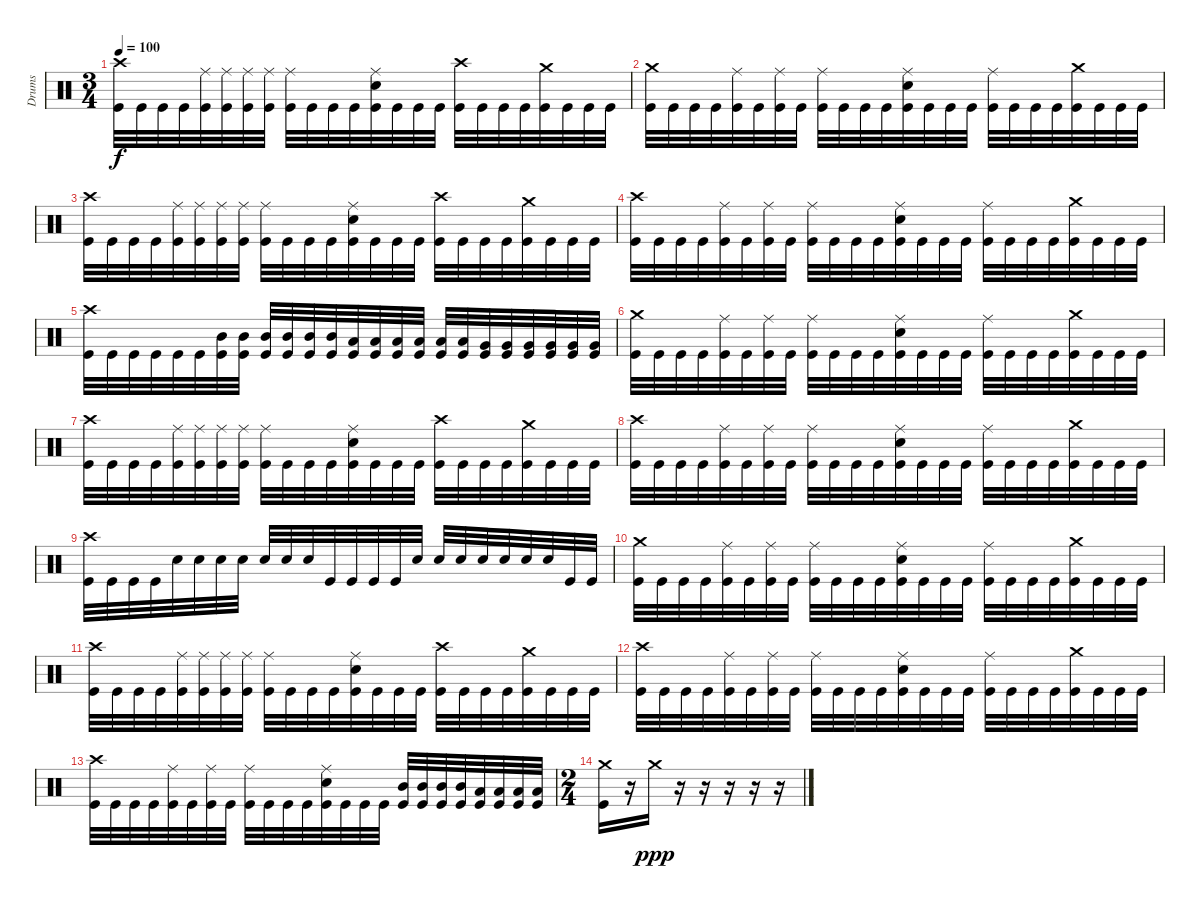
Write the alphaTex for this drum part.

\track ("Drums" "Drums") {instrument percussion}
\staff {score}
\articulation defaults
\ts (3 4)
\tempo 100
\clef neutral
\ks c
("Crash high (hit)" "Kick (hit)").32{dy f} "Kick (hit)".32 "Kick (hit)".32 "Kick (hit)".32 ("Ride (middle)" "Kick (hit)").32 ("Ride (middle)" "Kick (hit)").32 ("Ride (middle)" "Kick (hit)").32 ("Ride (middle)" "Kick (hit)").32 ("Ride (middle)" "Kick (hit)").32 "Kick (hit)".32 "Kick (hit)".32 "Kick (hit)".32 ("Ride (middle)" "Snare (hit) 2" "Kick (hit)").32 "Kick (hit)".32 "Kick (hit)".32 "Kick (hit)".32 ("Crash high (hit)" "Kick (hit)").32 "Kick (hit)".32 "Kick (hit)".32 "Kick (hit)".32 ("Crash medium (hit)" "Kick (hit)").32 "Kick (hit)".32 "Kick (hit)".32 "Kick (hit)".32 |
("Crash medium (hit)" "Kick (hit)").32 "Kick (hit)".32 "Kick (hit)".32 "Kick (hit)".32 ("Ride (middle)" "Kick (hit)").32 "Kick (hit)".32 ("Ride (middle)" "Kick (hit)").32 "Kick (hit)".32 ("Ride (middle)" "Kick (hit)").32 "Kick (hit)".32 "Kick (hit)".32 "Kick (hit)".32 ("Ride (middle)" "Snare (hit) 2" "Kick (hit)").32 "Kick (hit)".32 "Kick (hit)".32 "Kick (hit)".32 ("Ride (middle)" "Kick (hit)").32 "Kick (hit)".32 "Kick (hit)".32 "Kick (hit)".32 ("Crash medium (hit)" "Kick (hit)").32 "Kick (hit)".32 "Kick (hit)".32 "Kick (hit)".32 |
("Crash high (hit)" "Kick (hit)").32 "Kick (hit)".32 "Kick (hit)".32 "Kick (hit)".32 ("Ride (middle)" "Kick (hit)").32 ("Ride (middle)" "Kick (hit)").32 ("Ride (middle)" "Kick (hit)").32 ("Ride (middle)" "Kick (hit)").32 ("Ride (middle)" "Kick (hit)").32 "Kick (hit)".32 "Kick (hit)".32 "Kick (hit)".32 ("Ride (middle)" "Snare (hit) 2" "Kick (hit)").32 "Kick (hit)".32 "Kick (hit)".32 "Kick (hit)".32 ("Crash high (hit)" "Kick (hit)").32 "Kick (hit)".32 "Kick (hit)".32 "Kick (hit)".32 ("Crash medium (hit)" "Kick (hit)").32 "Kick (hit)".32 "Kick (hit)".32 "Kick (hit)".32 |
("Crash high (hit)" "Kick (hit)").32 "Kick (hit)".32 "Kick (hit)".32 "Kick (hit)".32 ("Ride (middle)" "Kick (hit)").32 "Kick (hit)".32 ("Ride (middle)" "Kick (hit)").32 "Kick (hit)".32 ("Ride (middle)" "Kick (hit)").32 "Kick (hit)".32 "Kick (hit)".32 "Kick (hit)".32 ("Ride (middle)" "Snare (hit) 2" "Kick (hit)").32 "Kick (hit)".32 "Kick (hit)".32 "Kick (hit)".32 ("Ride (middle)" "Kick (hit)").32 "Kick (hit)".32 "Kick (hit)".32 "Kick (hit)".32 ("Crash medium (hit)" "Kick (hit)").32 "Kick (hit)".32 "Kick (hit)".32 "Kick (hit)".32 |
("Crash high (hit)" "Kick (hit)").32 "Kick (hit)".32 "Kick (hit)".32 "Kick (hit)".32 "Kick (hit)".32 "Kick (hit)".32 ("Mid Tom (hit)" "Kick (hit)").32 ("Mid Tom (hit)" "Kick (hit)").32 ("Mid Tom (hit)" "Kick (hit)").32 ("Mid Tom (hit)" "Kick (hit)").32 ("Mid Tom (hit)" "Kick (hit)").32 ("Mid Tom (hit)" "Kick (hit)").32 ("Low Tom (hit)" "Kick (hit)").32 ("Low Tom (hit)" "Kick (hit)").32 ("Low Tom (hit)" "Kick (hit)").32 ("Low Tom (hit)" "Kick (hit)").32 ("Low Tom (hit)" "Kick (hit)").32 ("Low Tom (hit)" "Kick (hit)").32 ("Very Low Tom (hit)" "Kick (hit)").32 ("Very Low Tom (hit)" "Kick (hit)").32 ("Very Low Tom (hit)" "Kick (hit)").32 ("Very Low Tom (hit)" "Kick (hit)").32 ("Very Low Tom (hit)" "Kick (hit)").32 ("Very Low Tom (hit)" "Kick (hit)").32 |
("Crash medium (hit)" "Kick (hit)").32 "Kick (hit)".32 "Kick (hit)".32 "Kick (hit)".32 ("Ride (middle)" "Kick (hit)").32 "Kick (hit)".32 ("Ride (middle)" "Kick (hit)").32 "Kick (hit)".32 ("Ride (middle)" "Kick (hit)").32 "Kick (hit)".32 "Kick (hit)".32 "Kick (hit)".32 ("Ride (middle)" "Snare (hit) 2" "Kick (hit)").32 "Kick (hit)".32 "Kick (hit)".32 "Kick (hit)".32 ("Ride (middle)" "Kick (hit)").32 "Kick (hit)".32 "Kick (hit)".32 "Kick (hit)".32 ("Crash medium (hit)" "Kick (hit)").32 "Kick (hit)".32 "Kick (hit)".32 "Kick (hit)".32 |
("Crash high (hit)" "Kick (hit)").32 "Kick (hit)".32 "Kick (hit)".32 "Kick (hit)".32 ("Ride (middle)" "Kick (hit)").32 ("Ride (middle)" "Kick (hit)").32 ("Ride (middle)" "Kick (hit)").32 ("Ride (middle)" "Kick (hit)").32 ("Ride (middle)" "Kick (hit)").32 "Kick (hit)".32 "Kick (hit)".32 "Kick (hit)".32 ("Ride (middle)" "Snare (hit) 2" "Kick (hit)").32 "Kick (hit)".32 "Kick (hit)".32 "Kick (hit)".32 ("Crash high (hit)" "Kick (hit)").32 "Kick (hit)".32 "Kick (hit)".32 "Kick (hit)".32 ("Crash medium (hit)" "Kick (hit)").32 "Kick (hit)".32 "Kick (hit)".32 "Kick (hit)".32 |
("Crash high (hit)" "Kick (hit)").32 "Kick (hit)".32 "Kick (hit)".32 "Kick (hit)".32 ("Ride (middle)" "Kick (hit)").32 "Kick (hit)".32 ("Ride (middle)" "Kick (hit)").32 "Kick (hit)".32 ("Ride (middle)" "Kick (hit)").32 "Kick (hit)".32 "Kick (hit)".32 "Kick (hit)".32 ("Ride (middle)" "Snare (hit) 2" "Kick (hit)").32 "Kick (hit)".32 "Kick (hit)".32 "Kick (hit)".32 ("Ride (middle)" "Kick (hit)").32 "Kick (hit)".32 "Kick (hit)".32 "Kick (hit)".32 ("Crash medium (hit)" "Kick (hit)").32 "Kick (hit)".32 "Kick (hit)".32 "Kick (hit)".32 |
("Crash high (hit)" "Kick (hit)").32 "Kick (hit)".32 "Kick (hit)".32 "Kick (hit)".32 "Snare (hit) 2".32 "Snare (hit) 2".32 "Snare (hit) 2".32 "Snare (hit) 2".32 "Snare (hit) 2".32 "Snare (hit) 2".32 "Snare (hit) 2".32 "Kick (hit)".32 "Kick (hit)".32 "Kick (hit)".32 "Kick (hit)".32 "Snare (hit) 2".32 "Snare (hit) 2".32 "Snare (hit) 2".32 "Snare (hit) 2".32 "Snare (hit) 2".32 "Snare (hit) 2".32 "Snare (hit) 2".32 "Kick (hit)".32 "Kick (hit)".32 |
("Crash medium (hit)" "Kick (hit)").32 "Kick (hit)".32 "Kick (hit)".32 "Kick (hit)".32 ("Ride (middle)" "Kick (hit)").32 "Kick (hit)".32 ("Ride (middle)" "Kick (hit)").32 "Kick (hit)".32 ("Ride (middle)" "Kick (hit)").32 "Kick (hit)".32 "Kick (hit)".32 "Kick (hit)".32 ("Ride (middle)" "Snare (hit) 2" "Kick (hit)").32 "Kick (hit)".32 "Kick (hit)".32 "Kick (hit)".32 ("Ride (middle)" "Kick (hit)").32 "Kick (hit)".32 "Kick (hit)".32 "Kick (hit)".32 ("Crash medium (hit)" "Kick (hit)").32 "Kick (hit)".32 "Kick (hit)".32 "Kick (hit)".32 |
("Crash high (hit)" "Kick (hit)").32 "Kick (hit)".32 "Kick (hit)".32 "Kick (hit)".32 ("Ride (middle)" "Kick (hit)").32 ("Ride (middle)" "Kick (hit)").32 ("Ride (middle)" "Kick (hit)").32 ("Ride (middle)" "Kick (hit)").32 ("Ride (middle)" "Kick (hit)").32 "Kick (hit)".32 "Kick (hit)".32 "Kick (hit)".32 ("Ride (middle)" "Snare (hit) 2" "Kick (hit)").32 "Kick (hit)".32 "Kick (hit)".32 "Kick (hit)".32 ("Crash high (hit)" "Kick (hit)").32 "Kick (hit)".32 "Kick (hit)".32 "Kick (hit)".32 ("Crash medium (hit)" "Kick (hit)").32 "Kick (hit)".32 "Kick (hit)".32 "Kick (hit)".32 |
("Crash high (hit)" "Kick (hit)").32 "Kick (hit)".32 "Kick (hit)".32 "Kick (hit)".32 ("Ride (middle)" "Kick (hit)").32 "Kick (hit)".32 ("Ride (middle)" "Kick (hit)").32 "Kick (hit)".32 ("Ride (middle)" "Kick (hit)").32 "Kick (hit)".32 "Kick (hit)".32 "Kick (hit)".32 ("Ride (middle)" "Snare (hit) 2" "Kick (hit)").32 "Kick (hit)".32 "Kick (hit)".32 "Kick (hit)".32 ("Ride (middle)" "Kick (hit)").32 "Kick (hit)".32 "Kick (hit)".32 "Kick (hit)".32 ("Crash medium (hit)" "Kick (hit)").32 "Kick (hit)".32 "Kick (hit)".32 "Kick (hit)".32 |
("Crash high (hit)" "Kick (hit)").32 "Kick (hit)".32 "Kick (hit)".32 "Kick (hit)".32 ("Ride (middle)" "Kick (hit)").32 "Kick (hit)".32 ("Ride (middle)" "Kick (hit)").32 "Kick (hit)".32 ("Ride (middle)" "Kick (hit)").32 "Kick (hit)".32 "Kick (hit)".32 "Kick (hit)".32 ("Ride (middle)" "Snare (hit) 2" "Kick (hit)").32 "Kick (hit)".32 "Kick (hit)".32 "Kick (hit)".32 ("Mid Tom (hit)" "Kick (hit)").32 ("Mid Tom (hit)" "Kick (hit)").32 ("Mid Tom (hit)" "Kick (hit)").32 ("Mid Tom (hit)" "Kick (hit)").32 ("Low Tom (hit)" "Kick (hit)").32 ("Low Tom (hit)" "Kick (hit)").32 ("Low Tom (hit)" "Kick (hit)").32 ("Low Tom (hit)" "Kick (hit)").32 |
\ts (2 4)
("Crash medium (hit)" "Kick (hit)").16 r.16 "Crash medium (hit)".16{dy ppp} r.16 r.16 r.16 r.16 r.16
